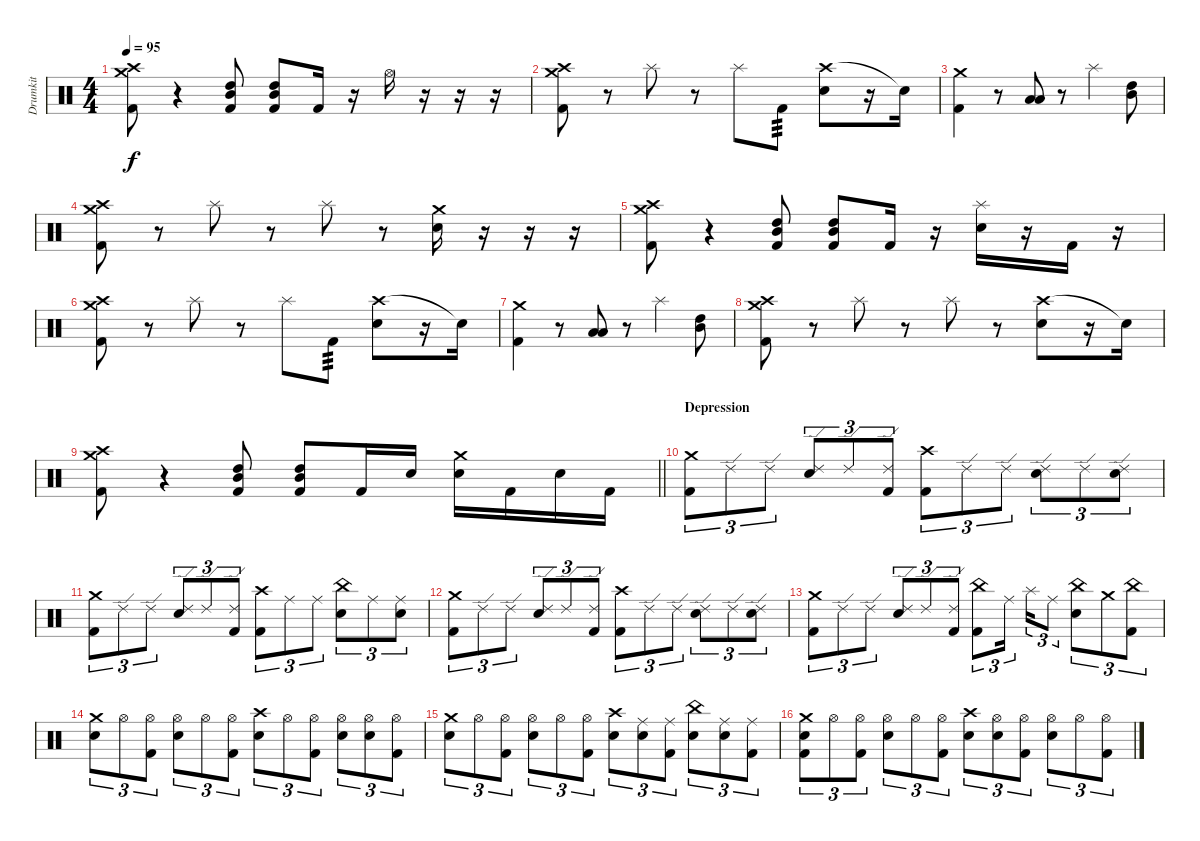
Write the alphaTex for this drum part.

\track ("Drumkit" "Drumkit") {instrument percussion}
\staff {score}
\articulation defaults
\ts (4 4)
\tempo 95
\clef neutral
\ks c
("Crash medium (hit)" "Crash high (hit)" "Kick (hit) 2").8{dy f} r.4 ("High Tom (hit)" "Mid Tom (hit)" "Kick (hit) 2").8 ("High Tom (hit)" "Mid Tom (hit)" "Kick (hit) 2").8 "Kick (hit) 2".16 r.16 "Hi-Hat (open)".16 r.16 r.16 r.16 |
("Crash high (hit)" "Crash medium (hit)" "Kick (hit) 2").8 r.8 "Splash (hit)".8 r.8 "Splash (hit)".8 "Kick (hit) 2".8{tp 3} ("Crash high (hit)" "Electric Snare (hit)").8 r.16 "Snare (hit)"{t}.16 |
("Crash medium (hit)" "Kick (hit) 2").4 r.8 ("Low Tom (hit)" "Low Floor Tom (hit)").8 r.8 "Splash (hit)".4 ("Mid Tom (hit)" "High Tom (hit)").8 |
("Crash high (hit)" "Crash medium (hit)" "Kick (hit) 2").8 r.8 "Splash (hit)".8 r.8 "Splash (hit)".8 r.8 ("Crash medium (hit)" "Electric Snare (hit)").16 r.16 r.16 r.16 |
("Crash medium (hit)" "Crash high (hit)" "Kick (hit) 2").8 r.4 ("High Tom (hit)" "Mid Tom (hit)" "Kick (hit) 2").8 ("High Tom (hit)" "Mid Tom (hit)" "Kick (hit) 2").8 "Kick (hit) 2".16 r.16 ("Splash (hit)" "Electric Snare (hit)").16 r.16 "Kick (hit) 2".16 r.16 |
("Crash high (hit)" "Crash medium (hit)" "Kick (hit) 2").8 r.8 "Splash (hit)".8 r.8 "Splash (hit)".8 "Kick (hit) 2".8{tp 3} ("Crash high (hit)" "Electric Snare (hit)").8 r.16 "Snare (hit)"{t}.16 |
("Crash medium (hit)" "Kick (hit) 2").4 r.8 ("Low Tom (hit)" "Low Floor Tom (hit)").8 r.8 "Splash (hit)".4 ("Mid Tom (hit)" "High Tom (hit)").8 |
("Crash high (hit)" "Crash medium (hit)" "Kick (hit) 2").8 r.8 "Splash (hit)".8 r.8 "Splash (hit)".8 r.8 ("Crash high (hit)" "Electric Snare (hit)").8 r.16 "Snare (hit)"{t}.16 |
\barLineRight lightlight
("Crash medium (hit)" "Crash high (hit)" "Kick (hit) 2").8 r.4 ("High Tom (hit)" "Mid Tom (hit)" "Kick (hit) 2").8 ("High Tom (hit)" "Mid Tom (hit)" "Kick (hit) 2").8 "Kick (hit) 2".16 "Electric Snare (hit)".16 ("Crash medium (hit)" "Electric Snare (hit)").16 "Kick (hit) 2".16 "Electric Snare (hit)".16 "Kick (hit) 2".16 |
\section ("" "Depression")
("Crash medium (hit)" "Kick (hit) 2").8{tu (3 2)} "Ride (edge) 2".8{tu (3 2)} "Ride (edge) 2".8{tu (3 2)} ("Ride (edge) 2" "Electric Snare (hit)").8{tu (3 2)} "Ride (edge) 2".8{tu (3 2)} ("Ride (edge) 2" "Kick (hit) 2").8{tu (3 2)} ("Crash high (hit)" "Kick (hit) 2").8{tu (3 2)} "Ride (edge) 2".8{tu (3 2)} "Ride (edge) 2".8{tu (3 2)} ("Ride (edge) 2" "Electric Snare (hit)").8{tu (3 2)} "Ride (edge) 2".8{tu (3 2)} ("Ride (edge) 2" "Electric Snare (hit)").8{tu (3 2)} |
("Crash medium (hit)" "Kick (hit) 2").8{tu (3 2)} "Ride (edge) 2".8{tu (3 2)} "Ride (edge) 2".8{tu (3 2)} ("Ride (edge) 2" "Electric Snare (hit)").8{tu (3 2)} "Ride (edge) 2".8{tu (3 2)} ("Ride (edge) 2" "Kick (hit) 2").8{tu (3 2)} ("Crash high (hit)" "Kick (hit) 2").8{tu (3 2)} "Ride (middle)".8{tu (3 2)} "Ride (middle)".8{tu (3 2)} ("China (hit)" "Electric Snare (hit)").8{tu (3 2)} "Ride (middle)".8{tu (3 2)} ("Ride (middle)" "Electric Snare (hit)").8{tu (3 2)} |
("Crash medium (hit)" "Kick (hit) 2").8{tu (3 2)} "Ride (edge) 2".8{tu (3 2)} "Ride (edge) 2".8{tu (3 2)} ("Ride (edge) 2" "Electric Snare (hit)").8{tu (3 2)} "Ride (edge) 2".8{tu (3 2)} ("Ride (edge) 2" "Kick (hit) 2").8{tu (3 2)} ("Crash high (hit)" "Kick (hit) 2").8{tu (3 2)} "Ride (edge) 2".8{tu (3 2)} "Ride (edge) 2".8{tu (3 2)} ("Ride (edge) 2" "Electric Snare (hit)").8{tu (3 2)} "Ride (edge) 2".8{tu (3 2)} ("Ride (edge) 2" "Electric Snare (hit)").8{tu (3 2)} |
("Crash medium (hit)" "Kick (hit) 2").8{tu (3 2)} "Ride (edge) 2".8{tu (3 2)} "Ride (edge) 2".8{tu (3 2)} ("Ride (edge) 2" "Electric Snare (hit)").8{tu (3 2)} "Ride (edge) 2".8{tu (3 2)} ("Ride (edge) 2" "Kick (hit) 2").8{tu (3 2)} ("China (hit)" "Kick (hit) 2").8{tu (3 2)} "Ride (middle)".16{tu (3 2) beam splitsecondary} "Splash (hit)".16{tu (3 2)} "Ride (middle)".8{tu (3 2)} ("China (hit)" "Electric Snare (hit)").8{tu (3 2)} "Crash medium (hit)".8{tu (3 2)} ("China (hit)" "Kick (hit) 2").8{tu (3 2)} |
("Crash medium (hit)" "Electric Snare (hit)").8{tu (3 2)} "Hi-Hat (open)".8{tu (3 2)} ("Hi-Hat (open)" "Kick (hit) 2").8{tu (3 2)} ("Hi-Hat (open)" "Electric Snare (hit)").8{tu (3 2)} "Hi-Hat (open)".8{tu (3 2)} ("Hi-Hat (open)" "Kick (hit) 2").8{tu (3 2)} ("Crash high (hit)" "Electric Snare (hit)").8{tu (3 2)} "Hi-Hat (open)".8{tu (3 2)} ("Hi-Hat (open)" "Kick (hit) 2").8{tu (3 2)} ("Hi-Hat (open)" "Electric Snare (hit)").8{tu (3 2)} ("Hi-Hat (open)" "Electric Snare (hit)").8{tu (3 2)} ("Hi-Hat (open)" "Kick (hit) 2").8{tu (3 2)} |
("Crash medium (hit)" "Electric Snare (hit)").8{tu (3 2)} "Hi-Hat (open)".8{tu (3 2)} ("Hi-Hat (open)" "Kick (hit) 2").8{tu (3 2)} ("Hi-Hat (open)" "Electric Snare (hit)").8{tu (3 2)} "Hi-Hat (open)".8{tu (3 2)} ("Hi-Hat (open)" "Kick (hit) 2").8{tu (3 2)} ("Crash high (hit)" "Electric Snare (hit)").8{tu (3 2)} ("Ride (middle)" "Electric Snare (hit)").8{tu (3 2)} ("Ride (middle)" "Kick (hit) 2").8{tu (3 2)} ("China (hit)" "Electric Snare (hit)").8{tu (3 2)} ("Ride (middle)" "Electric Snare (hit)").8{tu (3 2)} ("Ride (middle)" "Kick (hit) 2").8{tu (3 2)} |
("Crash medium (hit)" "Electric Snare (hit)" "Kick (hit) 2").8{tu (3 2)} "Hi-Hat (open)".8{tu (3 2)} ("Hi-Hat (open)" "Kick (hit) 2").8{tu (3 2)} ("Hi-Hat (open)" "Electric Snare (hit)").8{tu (3 2)} "Hi-Hat (open)".8{tu (3 2)} ("Hi-Hat (open)" "Kick (hit) 2").8{tu (3 2)} ("Crash high (hit)" "Electric Snare (hit)").8{tu (3 2)} ("Hi-Hat (open)" "Electric Snare (hit)").8{tu (3 2)} ("Hi-Hat (open)" "Kick (hit) 2").8{tu (3 2)} ("Hi-Hat (open)" "Electric Snare (hit)").8{tu (3 2)} "Hi-Hat (open)".8{tu (3 2)} ("Hi-Hat (open)" "Kick (hit) 2").8{tu (3 2)}
